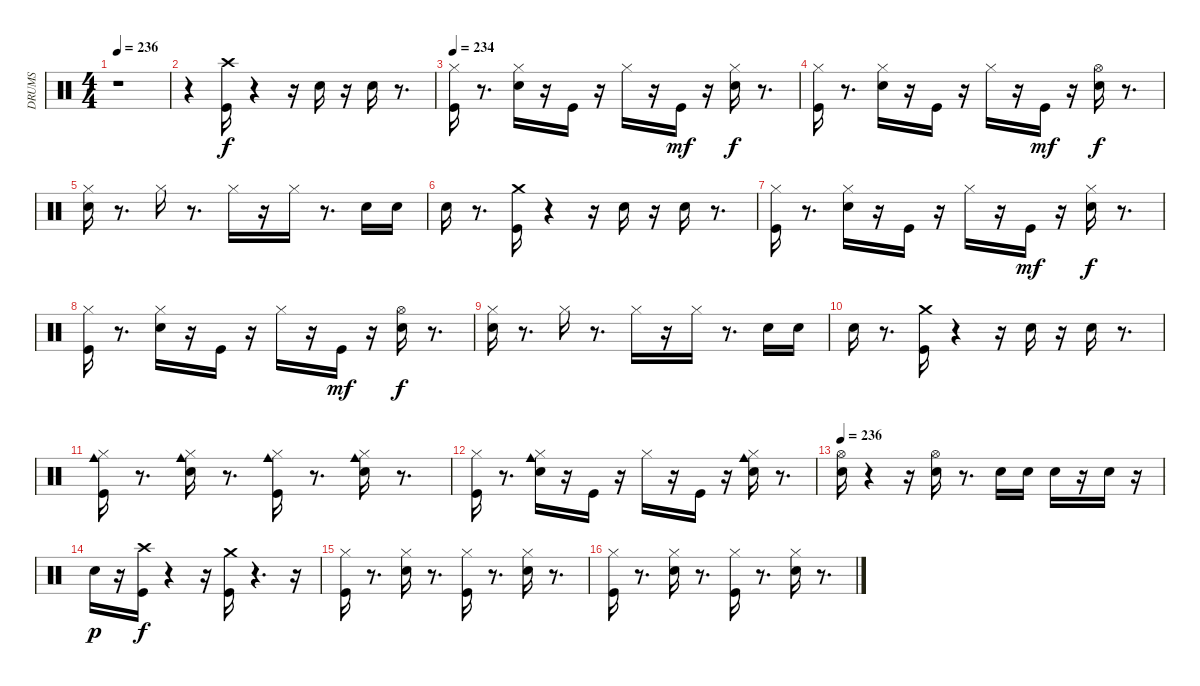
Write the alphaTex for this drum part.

\track ("DRUMS" "DRUMS") {instrument percussion}
\staff {score}
\articulation defaults
\ts (4 4)
\tempo 236
\clef neutral
\ks c
r.1{dy f} |
r.4 ("Crash high (hit)" "Kick (hit)").16 r.4 r.16 "Electric Snare (hit)".16 r.16 "Electric Snare (hit)".16 r.8{d} |
\tempo 234
("Hi-Hat (closed)" "Kick (hit)").16 r.8{d} ("Electric Snare (hit)" "Hi-Hat (closed)").16 r.16 "Kick (hit)".16 r.16 "Hi-Hat (closed)".16 r.16 "Kick (hit)".16{dy mf} r.16 ("Electric Snare (hit)" "Hi-Hat (closed)").16{dy f} r.8{d} |
("Hi-Hat (closed)" "Kick (hit)").16 r.8{d} ("Electric Snare (hit)" "Hi-Hat (closed)").16 r.16 "Kick (hit)".16 r.16 "Hi-Hat (closed)".16 r.16 "Kick (hit)".16{dy mf} r.16 ("Electric Snare (hit)" "Hi-Hat (open)").16{dy f} r.8{d} |
("Electric Snare (hit)" "Hi-Hat (closed)").16 r.8{d} "Hi-Hat (closed)".16 r.8{d} "Hi-Hat (closed)".16 r.16 "Hi-Hat (closed)".16 r.8{d} "Electric Snare (hit)".16 "Electric Snare (hit)".16 |
"Electric Snare (hit)".16 r.8{d} ("Kick (hit)" "Crash medium (hit)").16 r.4 r.16 "Electric Snare (hit)".16 r.16 "Electric Snare (hit)".16 r.8{d} |
("Hi-Hat (closed)" "Kick (hit)").16 r.8{d} ("Electric Snare (hit)" "Hi-Hat (closed)").16 r.16 "Kick (hit)".16 r.16 "Hi-Hat (closed)".16 r.16 "Kick (hit)".16{dy mf} r.16 ("Electric Snare (hit)" "Hi-Hat (closed)").16{dy f} r.8{d} |
("Hi-Hat (closed)" "Kick (hit)").16 r.8{d} ("Electric Snare (hit)" "Hi-Hat (closed)").16 r.16 "Kick (hit)".16 r.16 "Hi-Hat (closed)".16 r.16 "Kick (hit)".16{dy mf} r.16 ("Electric Snare (hit)" "Hi-Hat (open)").16{dy f} r.8{d} |
("Electric Snare (hit)" "Hi-Hat (closed)").16 r.8{d} "Hi-Hat (closed)".16 r.8{d} "Hi-Hat (closed)".16 r.16 "Hi-Hat (closed)".16 r.8{d} "Electric Snare (hit)".16 "Electric Snare (hit)".16 |
"Electric Snare (hit)".16 r.8{d} ("Crash medium (hit)" "Kick (hit)").16 r.4 r.16 "Electric Snare (hit)".16 r.16 "Electric Snare (hit)".16 r.8{d} |
("Kick (hit)" "Hi-Hat (closed)" "Cowbell medium (hit)").16 r.8{d} ("Electric Snare (hit)" "Hi-Hat (closed)" "Cowbell medium (hit)").16 r.8{d} ("Kick (hit)" "Hi-Hat (closed)" "Cowbell medium (hit)").16 r.8{d} ("Electric Snare (hit)" "Hi-Hat (closed)" "Cowbell medium (hit)").16 r.8{d} |
("Kick (hit)" "Hi-Hat (closed)").16 r.8{d} ("Electric Snare (hit)" "Cowbell medium (hit)" "Hi-Hat (closed)").16 r.16 "Kick (hit)".16 r.16 "Hi-Hat (closed)".16 r.16 "Kick (hit)".16 r.16 ("Electric Snare (hit)" "Hi-Hat (closed)" "Cowbell medium (hit)").16 r.8{d} |
\tempo 236
("Electric Snare (hit)" "Hi-Hat (open)").16 r.4 r.16 ("Hi-Hat (open)" "Electric Snare (hit)").16 r.8{d} "Electric Snare (hit)".16 "Electric Snare (hit)".16 "Electric Snare (hit)".16 r.16 "Electric Snare (hit)".16 r.16 |
"Electric Snare (hit)".16{dy p} r.16 ("Kick (hit)" "Crash high (hit)").16{dy f} r.4 r.16 ("Crash medium (hit)" "Kick (hit)").16 r.4{d} r.16 |
("Kick (hit)" "Hi-Hat (closed)").16 r.8{d} ("Electric Snare (hit)" "Hi-Hat (closed)").16 r.8{d} ("Kick (hit)" "Hi-Hat (closed)").16 r.8{d} ("Electric Snare (hit)" "Hi-Hat (closed)").16 r.8{d} |
("Kick (hit)" "Hi-Hat (closed)").16 r.8{d} ("Electric Snare (hit)" "Hi-Hat (closed)").16 r.8{d} ("Kick (hit)" "Hi-Hat (closed)").16 r.8{d} ("Electric Snare (hit)" "Hi-Hat (closed)").16 r.8{d}
